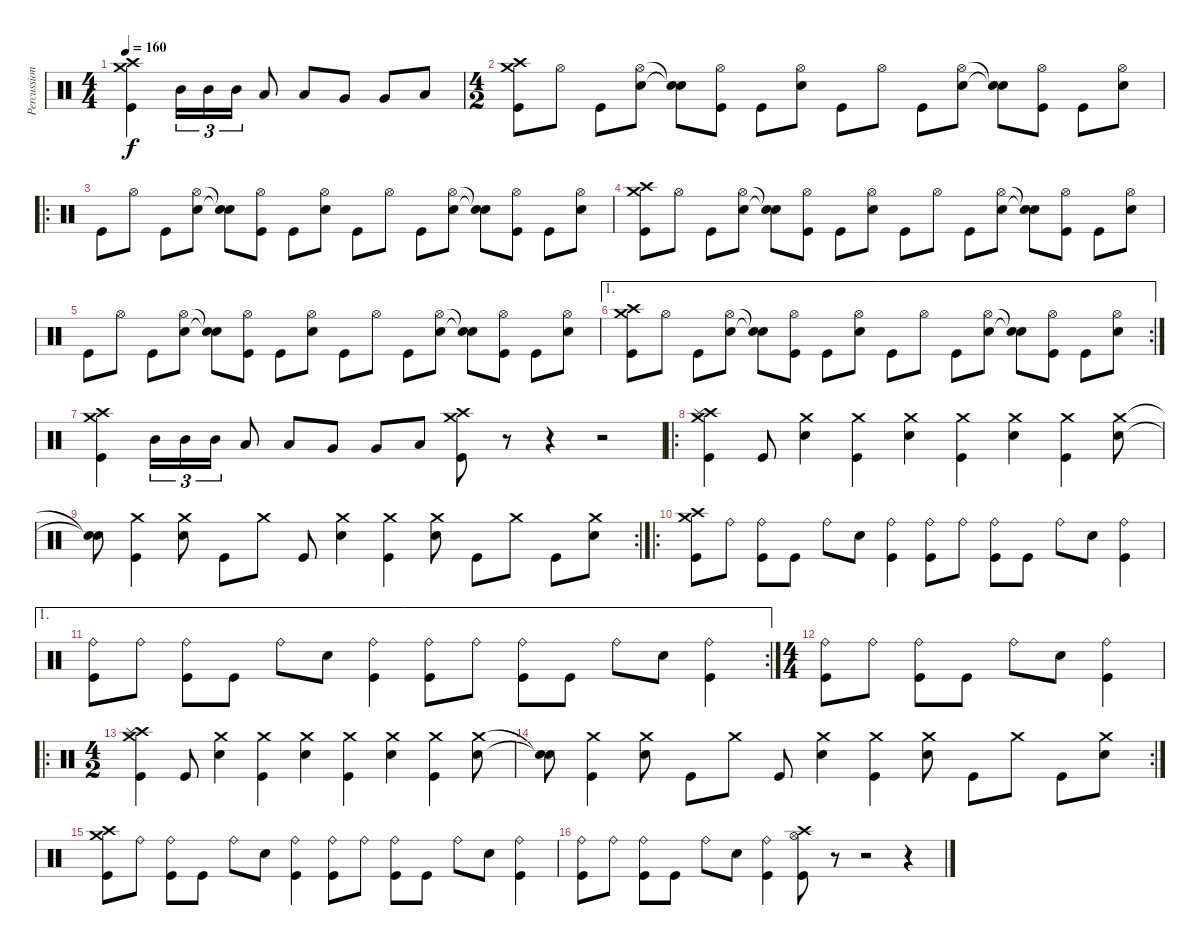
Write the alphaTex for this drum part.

\track ("Percussion" "Percussion") {instrument percussion}
\staff {score}
\articulation defaults
\ts (4 4)
\tempo 160
\clef neutral
\ks c
("Kick (hit)" "Crash medium (hit)" "Crash high (hit)").4{dy f} "Mid Tom (hit)".16{tu (3 2)} "Mid Tom (hit)".16{tu (3 2)} "Mid Tom (hit)".16{tu (3 2)} "Low Tom (hit)".8 "Low Tom (hit)".8 "Very Low Tom (hit)".8 "Very Low Tom (hit)".8 "Low Floor Tom (hit)".8 |
\ts (4 2)
("Kick (hit)" "Crash medium (hit)" "Crash high (hit)").8 "Hi-Hat (open)".8 "Kick (hit)".8 ("Hi-Hat (open)" "Electric Snare (hit)").8 ("Snare (hit)"{t} "Snare (hit)"{t}).8 ("Kick (hit)" "Hi-Hat (open)").8 "Kick (hit)".8 ("Hi-Hat (open)" "Electric Snare (hit)").8 "Kick (hit)".8 "Hi-Hat (open)".8 "Kick (hit)".8 ("Hi-Hat (open)" "Electric Snare (hit)").8 ("Snare (hit)"{t} "Snare (hit)"{t}).8 ("Kick (hit)" "Hi-Hat (open)").8 "Kick (hit)".8 ("Hi-Hat (open)" "Electric Snare (hit)").8 |
\ro "Kick (hit)".8 "Hi-Hat (open)".8 "Kick (hit)".8
("Hi-Hat (open)" "Electric Snare (hit)").8 ("Snare (hit)"{t} "Snare (hit)"{t}).8 ("Kick (hit)" "Hi-Hat (open)").8 "Kick (hit)".8 ("Hi-Hat (open)" "Electric Snare (hit)").8 "Kick (hit)".8 "Hi-Hat (open)".8 "Kick (hit)".8 ("Hi-Hat (open)" "Electric Snare (hit)").8 ("Snare (hit)"{t} "Snare (hit)"{t}).8 ("Kick (hit)" "Hi-Hat (open)").8 "Kick (hit)".8 ("Hi-Hat (open)" "Electric Snare (hit)").8 |
("Kick (hit)" "Crash medium (hit)" "Crash high (hit)").8 "Hi-Hat (open)".8 "Kick (hit)".8 ("Hi-Hat (open)" "Electric Snare (hit)").8 ("Snare (hit)"{t} "Snare (hit)"{t}).8 ("Kick (hit)" "Hi-Hat (open)").8 "Kick (hit)".8 ("Hi-Hat (open)" "Electric Snare (hit)").8 "Kick (hit)".8 "Hi-Hat (open)".8 "Kick (hit)".8 ("Hi-Hat (open)" "Electric Snare (hit)").8 ("Snare (hit)"{t} "Snare (hit)"{t}).8 ("Kick (hit)" "Hi-Hat (open)").8 "Kick (hit)".8 ("Hi-Hat (open)" "Electric Snare (hit)").8 |
"Kick (hit)".8 "Hi-Hat (open)".8 "Kick (hit)".8 ("Hi-Hat (open)" "Electric Snare (hit)").8 ("Snare (hit)"{t} "Snare (hit)"{t}).8 ("Kick (hit)" "Hi-Hat (open)").8 "Kick (hit)".8 ("Hi-Hat (open)" "Electric Snare (hit)").8 "Kick (hit)".8 "Hi-Hat (open)".8 "Kick (hit)".8 ("Hi-Hat (open)" "Electric Snare (hit)").8 ("Snare (hit)"{t} "Snare (hit)"{t}).8 ("Kick (hit)" "Hi-Hat (open)").8 "Kick (hit)".8 ("Hi-Hat (open)" "Electric Snare (hit)").8 |
\ae 1
\rc 2
("Kick (hit)" "Crash medium (hit)" "Crash high (hit)").8 "Hi-Hat (open)".8 "Kick (hit)".8 ("Hi-Hat (open)" "Electric Snare (hit)").8 ("Snare (hit)"{t} "Snare (hit)"{t}).8 ("Kick (hit)" "Hi-Hat (open)").8 "Kick (hit)".8 ("Hi-Hat (open)" "Electric Snare (hit)").8 "Kick (hit)".8 "Hi-Hat (open)".8 "Kick (hit)".8 ("Hi-Hat (open)" "Electric Snare (hit)").8 ("Snare (hit)"{t} "Snare (hit)"{t}).8 ("Kick (hit)" "Hi-Hat (open)").8 "Kick (hit)".8 ("Hi-Hat (open)" "Electric Snare (hit)").8 |
("Kick (hit)" "Crash medium (hit)" "Crash high (hit)").4 "Mid Tom (hit)".16{tu (3 2)} "Mid Tom (hit)".16{tu (3 2)} "Mid Tom (hit)".16{tu (3 2)} "Low Tom (hit)".8 "Low Tom (hit)".8 "Very Low Tom (hit)".8 "Very Low Tom (hit)".8 "Low Floor Tom (hit)".8 ("Kick (hit)" "Crash medium (hit)" "Crash high (hit)").8 r.8 r.4 r.2 |
\ro
("Kick (hit)" "Crash medium (hit)" "Crash high (hit)" "Splash (hit)").4 "Kick (hit)".8 ("Crash medium (hit)" "Electric Snare (hit)").4 ("Kick (hit)" "Crash medium (hit)").4 ("Crash medium (hit)" "Electric Snare (hit)").4 ("Kick (hit)" "Crash medium (hit)").4 ("Crash medium (hit)" "Electric Snare (hit)").4 ("Kick (hit)" "Crash medium (hit)").4 ("Crash medium (hit)" "Electric Snare (hit)").8 |
\rc 2
("Snare (hit)"{t} "Snare (hit)"{t}).8 ("Kick (hit)" "Crash medium (hit)").4 ("Crash medium (hit)" "Electric Snare (hit)").8 "Kick (hit)".8 "Crash medium (hit)".8 "Kick (hit)".8 ("Crash medium (hit)" "Electric Snare (hit)").4 ("Kick (hit)" "Crash medium (hit)").4 ("Crash medium (hit)" "Electric Snare (hit)").8 "Kick (hit)".8 "Crash medium (hit)".8 "Kick (hit)".8 ("Crash medium (hit)" "Electric Snare (hit)").8 |
\ro
("Kick (hit)" "Crash high (hit)" "Crash medium (hit)").8 "Ride (bell)".8 ("Kick (hit)" "Ride (bell)").8 "Kick (hit)".8 "Ride (bell)".8 "Electric Snare (hit)".8 ("Kick (hit)" "Ride (bell)").4 ("Kick (hit)" "Ride (bell)").8 "Ride (bell)".8 ("Kick (hit)" "Ride (bell)").8 "Kick (hit)".8 "Ride (bell)".8 "Electric Snare (hit)".8 ("Kick (hit)" "Ride (bell)").4 |
\ae 1
\rc 2
("Kick (hit)" "Ride (bell)").8 "Ride (bell)".8 ("Kick (hit)" "Ride (bell)").8 "Kick (hit)".8 "Ride (bell)".8 "Electric Snare (hit)".8 ("Kick (hit)" "Ride (bell)").4 ("Kick (hit)" "Ride (bell)").8 "Ride (bell)".8 ("Kick (hit)" "Ride (bell)").8 "Kick (hit)".8 "Ride (bell)".8 "Electric Snare (hit)".8 ("Kick (hit)" "Ride (bell)").4 |
\ts (4 4)
("Kick (hit)" "Ride (bell)").8 "Ride (bell)".8 ("Kick (hit)" "Ride (bell)").8 "Kick (hit)".8 "Ride (bell)".8 "Electric Snare (hit)".8 ("Kick (hit)" "Ride (bell)").4 |
\ro
\ts (4 2)
("Kick (hit)" "Crash medium (hit)" "Crash high (hit)" "Splash (hit)").4 "Kick (hit)".8 ("Crash medium (hit)" "Electric Snare (hit)").4 ("Kick (hit)" "Crash medium (hit)").4 ("Crash medium (hit)" "Electric Snare (hit)").4 ("Kick (hit)" "Crash medium (hit)").4 ("Crash medium (hit)" "Electric Snare (hit)").4 ("Kick (hit)" "Crash medium (hit)").4 ("Crash medium (hit)" "Electric Snare (hit)").8 |
\rc 2
("Snare (hit)"{t} "Snare (hit)"{t}).8 ("Kick (hit)" "Crash medium (hit)").4 ("Crash medium (hit)" "Electric Snare (hit)").8 "Kick (hit)".8 "Crash medium (hit)".8 "Kick (hit)".8 ("Crash medium (hit)" "Electric Snare (hit)").4 ("Kick (hit)" "Crash medium (hit)").4 ("Crash medium (hit)" "Electric Snare (hit)").8 "Kick (hit)".8 "Crash medium (hit)".8 "Kick (hit)".8 ("Crash medium (hit)" "Electric Snare (hit)").8 |
("Kick (hit)" "Crash high (hit)" "Crash medium (hit)").8 "Ride (bell)".8 ("Kick (hit)" "Ride (bell)").8 "Kick (hit)".8 "Ride (bell)".8 "Electric Snare (hit)".8 ("Kick (hit)" "Ride (bell)").4 ("Kick (hit)" "Ride (bell)").8 "Ride (bell)".8 ("Kick (hit)" "Ride (bell)").8 "Kick (hit)".8 "Ride (bell)".8 "Electric Snare (hit)".8 ("Kick (hit)" "Ride (bell)").4 |
("Kick (hit)" "Ride (bell)").8 "Ride (bell)".8 ("Kick (hit)" "Ride (bell)").8 "Kick (hit)".8 "Ride (bell)".8 "Electric Snare (hit)".8 ("Kick (hit)" "Ride (bell)").4 ("Kick (hit)" "Hi-Hat (open)" "Crash high (hit)").8 r.8 r.2 r.4
